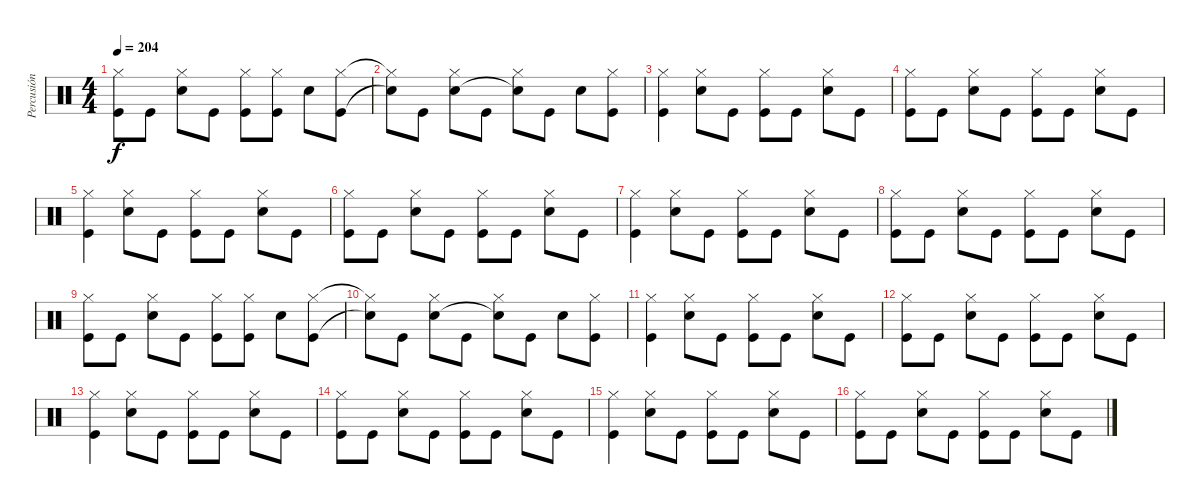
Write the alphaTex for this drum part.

\track ("Percusión" "Percusión") {instrument percussion}
\staff {score}
\articulation defaults
\ts (4 4)
\tempo 204
\clef neutral
\ks c
("Hi-Hat (closed)" "Kick (hit)").8{dy f} "Kick (hit)".8 ("Hi-Hat (closed)" "Snare (hit) 2").8 "Kick (hit)".8 ("Hi-Hat (closed)" "Kick (hit)").8 ("Hi-Hat (closed)" "Kick (hit)").8 "Snare (hit) 2".8 ("Hi-Hat (closed)" "Kick (hit)").8 |
("Hi-Hat (closed)"{t} "Snare (hit)"{t}).8 "Kick (hit)".8 ("Hi-Hat (closed)" "Snare (hit) 2").8 "Kick (hit)".8 ("Hi-Hat (closed)" "Snare (hit)"{t}).8 "Kick (hit)".8 "Snare (hit) 2".8 ("Hi-Hat (closed)" "Kick (hit)").8 |
("Hi-Hat (closed)" "Kick (hit)").4 ("Hi-Hat (closed)" "Snare (hit) 2").8 "Kick (hit)".8 ("Hi-Hat (closed)" "Kick (hit)").8 "Kick (hit)".8 ("Hi-Hat (closed)" "Snare (hit) 2").8 "Kick (hit)".8 |
("Hi-Hat (closed)" "Kick (hit)").8 "Kick (hit)".8 ("Hi-Hat (closed)" "Snare (hit) 2").8 "Kick (hit)".8 ("Hi-Hat (closed)" "Kick (hit)").8 "Kick (hit)".8 ("Hi-Hat (closed)" "Snare (hit) 2").8 "Kick (hit)".8 |
("Hi-Hat (closed)" "Kick (hit)").4 ("Hi-Hat (closed)" "Snare (hit) 2").8 "Kick (hit)".8 ("Hi-Hat (closed)" "Kick (hit)").8 "Kick (hit)".8 ("Hi-Hat (closed)" "Snare (hit) 2").8 "Kick (hit)".8 |
("Hi-Hat (closed)" "Kick (hit)").8 "Kick (hit)".8 ("Hi-Hat (closed)" "Snare (hit) 2").8 "Kick (hit)".8 ("Hi-Hat (closed)" "Kick (hit)").8 "Kick (hit)".8 ("Hi-Hat (closed)" "Snare (hit) 2").8 "Kick (hit)".8 |
("Hi-Hat (closed)" "Kick (hit)").4 ("Hi-Hat (closed)" "Snare (hit) 2").8 "Kick (hit)".8 ("Hi-Hat (closed)" "Kick (hit)").8 "Kick (hit)".8 ("Hi-Hat (closed)" "Snare (hit) 2").8 "Kick (hit)".8 |
("Hi-Hat (closed)" "Kick (hit)").8 "Kick (hit)".8 ("Hi-Hat (closed)" "Snare (hit) 2").8 "Kick (hit)".8 ("Hi-Hat (closed)" "Kick (hit)").8 "Kick (hit)".8 ("Hi-Hat (closed)" "Snare (hit) 2").8 "Kick (hit)".8 |
("Hi-Hat (closed)" "Kick (hit)").8 "Kick (hit)".8 ("Hi-Hat (closed)" "Snare (hit) 2").8 "Kick (hit)".8 ("Hi-Hat (closed)" "Kick (hit)").8 ("Hi-Hat (closed)" "Kick (hit)").8 "Snare (hit) 2".8 ("Hi-Hat (closed)" "Kick (hit)").8 |
("Hi-Hat (closed)"{t} "Snare (hit)"{t}).8 "Kick (hit)".8 ("Hi-Hat (closed)" "Snare (hit) 2").8 "Kick (hit)".8 ("Hi-Hat (closed)" "Snare (hit)"{t}).8 "Kick (hit)".8 "Snare (hit) 2".8 ("Hi-Hat (closed)" "Kick (hit)").8 |
("Hi-Hat (closed)" "Kick (hit)").4 ("Hi-Hat (closed)" "Snare (hit) 2").8 "Kick (hit)".8 ("Hi-Hat (closed)" "Kick (hit)").8 "Kick (hit)".8 ("Hi-Hat (closed)" "Snare (hit) 2").8 "Kick (hit)".8 |
("Hi-Hat (closed)" "Kick (hit)").8 "Kick (hit)".8 ("Hi-Hat (closed)" "Snare (hit) 2").8 "Kick (hit)".8 ("Hi-Hat (closed)" "Kick (hit)").8 "Kick (hit)".8 ("Hi-Hat (closed)" "Snare (hit) 2").8 "Kick (hit)".8 |
("Hi-Hat (closed)" "Kick (hit)").4 ("Hi-Hat (closed)" "Snare (hit) 2").8 "Kick (hit)".8 ("Hi-Hat (closed)" "Kick (hit)").8 "Kick (hit)".8 ("Hi-Hat (closed)" "Snare (hit) 2").8 "Kick (hit)".8 |
("Hi-Hat (closed)" "Kick (hit)").8 "Kick (hit)".8 ("Hi-Hat (closed)" "Snare (hit) 2").8 "Kick (hit)".8 ("Hi-Hat (closed)" "Kick (hit)").8 "Kick (hit)".8 ("Hi-Hat (closed)" "Snare (hit) 2").8 "Kick (hit)".8 |
("Hi-Hat (closed)" "Kick (hit)").4 ("Hi-Hat (closed)" "Snare (hit) 2").8 "Kick (hit)".8 ("Hi-Hat (closed)" "Kick (hit)").8 "Kick (hit)".8 ("Hi-Hat (closed)" "Snare (hit) 2").8 "Kick (hit)".8 |
("Hi-Hat (closed)" "Kick (hit)").8 "Kick (hit)".8 ("Hi-Hat (closed)" "Snare (hit) 2").8 "Kick (hit)".8 ("Hi-Hat (closed)" "Kick (hit)").8 "Kick (hit)".8 ("Hi-Hat (closed)" "Snare (hit) 2").8 "Kick (hit)".8
